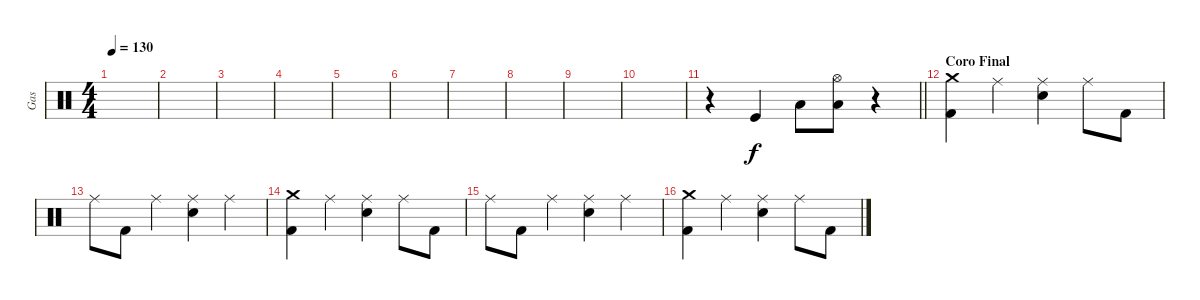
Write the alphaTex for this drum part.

\track ("Gas" "Gas") {instrument percussion}
\staff {score}
\articulation defaults
\ts (4 4)
\tempo 130
\clef neutral
\ks c
|
|
|
|
|
|
|
|
|
|
\barLineRight lightlight
r.4 "Kick (hit)".4 "Low Tom (hit)".8 ("Hi-Hat (open)" "Low Tom (hit)").8 r.4 |
\section ("" "Coro Final")
("Crash medium (hit)" "Kick (hit) 2").4 "Ride (middle)".4 ("Ride (middle)" "Electric Snare (hit)").4 "Ride (middle)".8 "Kick (hit) 2".8 |
"Ride (middle)".8 "Kick (hit) 2".8 "Ride (middle)".4 ("Ride (middle)" "Electric Snare (hit)").4 "Ride (middle)".4 |
("Crash medium (hit)" "Kick (hit) 2").4 "Ride (middle)".4 ("Ride (middle)" "Electric Snare (hit)").4 "Ride (middle)".8 "Kick (hit) 2".8 |
"Ride (middle)".8 "Kick (hit) 2".8 "Ride (middle)".4 ("Ride (middle)" "Electric Snare (hit)").4 "Ride (middle)".4 |
("Crash medium (hit)" "Kick (hit) 2").4 "Ride (middle)".4 ("Ride (middle)" "Electric Snare (hit)").4 "Ride (middle)".8 "Kick (hit) 2".8
